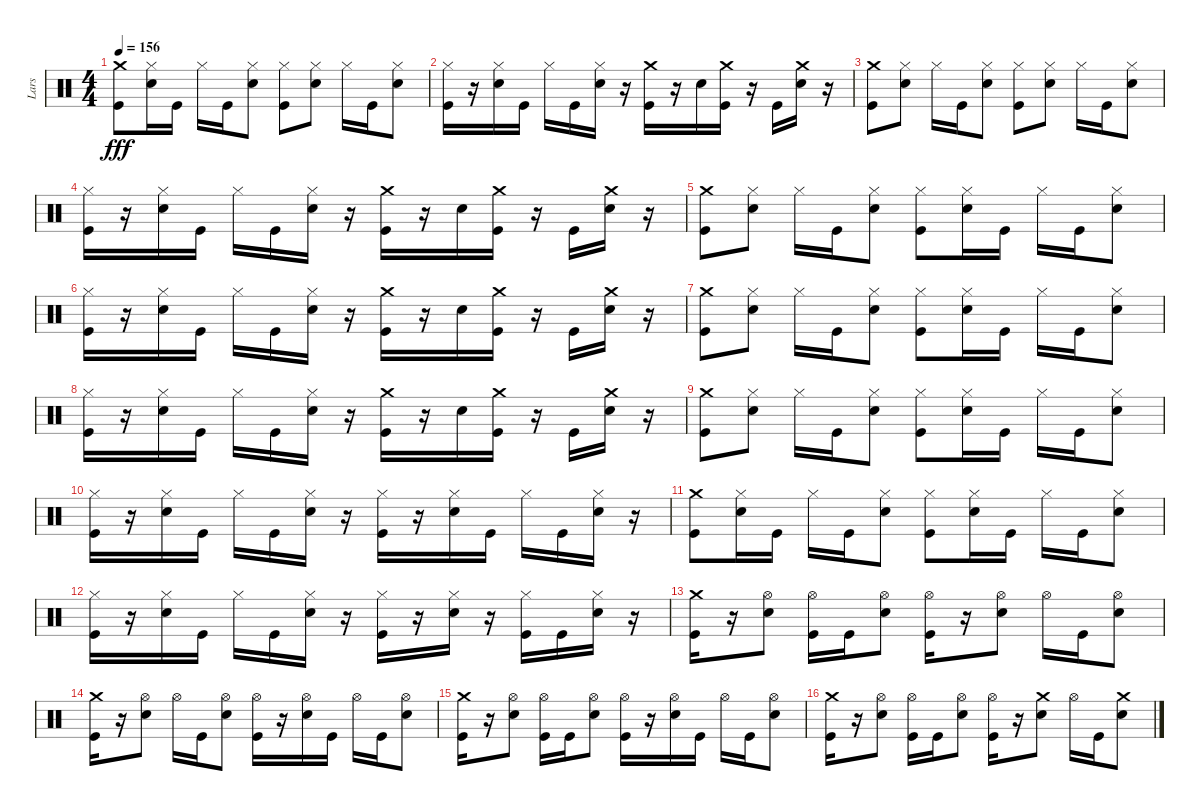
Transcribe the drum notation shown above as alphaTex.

\track ("Lars" "Lars") {instrument percussion bank 102}
\staff {score}
\articulation defaults
\ts (4 4)
\tempo 156
\clef neutral
\ks c
("Crash medium (hit)" "Kick (hit)").8{dy fff} ("Snare (hit) 2" "Hi-Hat (closed)").16 "Kick (hit)".16 "Hi-Hat (closed)".16 "Kick (hit)".16 ("Snare (hit) 2" "Hi-Hat (closed)").8 ("Kick (hit)" "Hi-Hat (closed)").8 ("Snare (hit) 2" "Hi-Hat (closed)").8 "Hi-Hat (closed)".16 "Kick (hit)".16 ("Snare (hit) 2" "Hi-Hat (closed)").8 |
("Hi-Hat (closed)" "Kick (hit)").16 r.16 ("Hi-Hat (closed)" "Snare (hit) 2").16 "Kick (hit)".16 "Hi-Hat (closed)".16 "Kick (hit)".16 ("Hi-Hat (closed)" "Snare (hit) 2").16 r.16 ("Crash medium (hit)" "Kick (hit)").16 r.16 "Snare (hit) 2".16 ("Crash medium (hit)" "Kick (hit)").16 r.16 "Kick (hit)".16 ("Crash medium (hit)" "Snare (hit) 2").16 r.16 |
("Crash medium (hit)" "Kick (hit)").8 ("Snare (hit) 2" "Hi-Hat (closed)").8 "Hi-Hat (closed)".16 "Kick (hit)".16 ("Snare (hit) 2" "Hi-Hat (closed)").8 ("Kick (hit)" "Hi-Hat (closed)").8 ("Snare (hit) 2" "Hi-Hat (closed)").8 "Hi-Hat (closed)".16 "Kick (hit)".16 ("Snare (hit) 2" "Hi-Hat (closed)").8 |
("Hi-Hat (closed)" "Kick (hit)").16 r.16 ("Hi-Hat (closed)" "Snare (hit) 2").16 "Kick (hit)".16 "Hi-Hat (closed)".16 "Kick (hit)".16 ("Hi-Hat (closed)" "Snare (hit) 2").16 r.16 ("Crash medium (hit)" "Kick (hit)").16 r.16 "Snare (hit) 2".16 ("Crash medium (hit)" "Kick (hit)").16 r.16 "Kick (hit)".16 ("Crash medium (hit)" "Snare (hit) 2").16 r.16 |
("Crash medium (hit)" "Kick (hit)").8 ("Snare (hit) 2" "Hi-Hat (closed)").8 "Hi-Hat (closed)".16 "Kick (hit)".16 ("Snare (hit) 2" "Hi-Hat (closed)").8 ("Kick (hit)" "Hi-Hat (closed)").8 ("Snare (hit) 2" "Hi-Hat (closed)").16 "Kick (hit)".16 "Hi-Hat (closed)".16 "Kick (hit)".16 ("Snare (hit) 2" "Hi-Hat (closed)").8 |
("Hi-Hat (closed)" "Kick (hit)").16 r.16 ("Hi-Hat (closed)" "Snare (hit) 2").16 "Kick (hit)".16 "Hi-Hat (closed)".16 "Kick (hit)".16 ("Hi-Hat (closed)" "Snare (hit) 2").16 r.16 ("Crash medium (hit)" "Kick (hit)").16 r.16 "Snare (hit) 2".16 ("Crash medium (hit)" "Kick (hit)").16 r.16 "Kick (hit)".16 ("Crash medium (hit)" "Snare (hit) 2").16 r.16 |
("Crash medium (hit)" "Kick (hit)").8 ("Snare (hit) 2" "Hi-Hat (closed)").8 "Hi-Hat (closed)".16 "Kick (hit)".16 ("Snare (hit) 2" "Hi-Hat (closed)").8 ("Kick (hit)" "Hi-Hat (closed)").8 ("Snare (hit) 2" "Hi-Hat (closed)").16 "Kick (hit)".16 "Hi-Hat (closed)".16 "Kick (hit)".16 ("Snare (hit) 2" "Hi-Hat (closed)").8 |
("Hi-Hat (closed)" "Kick (hit)").16 r.16 ("Hi-Hat (closed)" "Snare (hit) 2").16 "Kick (hit)".16 "Hi-Hat (closed)".16 "Kick (hit)".16 ("Hi-Hat (closed)" "Snare (hit) 2").16 r.16 ("Crash medium (hit)" "Kick (hit)").16 r.16 "Snare (hit) 2".16 ("Crash medium (hit)" "Kick (hit)").16 r.16 "Kick (hit)".16 ("Crash medium (hit)" "Snare (hit) 2").16 r.16 |
("Crash medium (hit)" "Kick (hit)").8 ("Snare (hit) 2" "Hi-Hat (closed)").8 "Hi-Hat (closed)".16 "Kick (hit)".16 ("Snare (hit) 2" "Hi-Hat (closed)").8 ("Kick (hit)" "Hi-Hat (closed)").8 ("Snare (hit) 2" "Hi-Hat (closed)").16 "Kick (hit)".16 "Hi-Hat (closed)".16 "Kick (hit)".16 ("Snare (hit) 2" "Hi-Hat (closed)").8 |
("Hi-Hat (closed)" "Kick (hit)").16 r.16 ("Hi-Hat (closed)" "Snare (hit) 2").16 "Kick (hit)".16 "Hi-Hat (closed)".16 "Kick (hit)".16 ("Hi-Hat (closed)" "Snare (hit) 2").16 r.16 ("Hi-Hat (closed)" "Kick (hit)").16 r.16 ("Hi-Hat (closed)" "Snare (hit) 2").16 "Kick (hit)".16 "Hi-Hat (closed)".16 "Kick (hit)".16 ("Hi-Hat (closed)" "Snare (hit) 2").16 r.16 |
("Crash medium (hit)" "Kick (hit)").8 ("Snare (hit) 2" "Hi-Hat (closed)").16 "Kick (hit)".16 "Hi-Hat (closed)".16 "Kick (hit)".16 ("Snare (hit) 2" "Hi-Hat (closed)").8 ("Kick (hit)" "Hi-Hat (closed)").8 ("Snare (hit) 2" "Hi-Hat (closed)").16 "Kick (hit)".16 "Hi-Hat (closed)".16 "Kick (hit)".16 ("Snare (hit) 2" "Hi-Hat (closed)").8 |
("Hi-Hat (closed)" "Kick (hit)").16 r.16 ("Hi-Hat (closed)" "Snare (hit) 2").16 "Kick (hit)".16 "Hi-Hat (closed)".16 "Kick (hit)".16 ("Hi-Hat (closed)" "Snare (hit) 2").16 r.16 ("Hi-Hat (closed)" "Kick (hit)").16 r.16 ("Hi-Hat (closed)" "Snare (hit) 2").16 r.16 ("Kick (hit)" "Hi-Hat (closed)").16 "Kick (hit)".16 ("Snare (hit) 2" "Hi-Hat (closed)").16 r.16 |
("Kick (hit)" "Crash medium (hit)").16 r.16 ("Snare (hit) 2" "Hi-Hat (open)").8 ("Kick (hit)" "Hi-Hat (open)").16 "Kick (hit)".16 ("Snare (hit) 2" "Hi-Hat (open)").8 ("Kick (hit)" "Hi-Hat (open)").16 r.16 ("Snare (hit) 2" "Hi-Hat (open)").8 "Hi-Hat (open)".16 "Kick (hit)".16 ("Snare (hit) 2" "Hi-Hat (open)").8 |
("Kick (hit)" "Crash medium (hit)").16 r.16 ("Snare (hit) 2" "Hi-Hat (open)").8 "Hi-Hat (open)".16 "Kick (hit)".16 ("Snare (hit) 2" "Hi-Hat (open)").8 ("Kick (hit)" "Hi-Hat (open)").16 r.16 ("Snare (hit) 2" "Hi-Hat (open)").16 "Kick (hit)".16 "Hi-Hat (open)".16 "Kick (hit)".16 ("Snare (hit) 2" "Hi-Hat (open)").8 |
("Kick (hit)" "Crash medium (hit)").16 r.16 ("Snare (hit) 2" "Hi-Hat (open)").8 ("Kick (hit)" "Hi-Hat (open)").16 "Kick (hit)".16 ("Snare (hit) 2" "Hi-Hat (open)").8 ("Kick (hit)" "Hi-Hat (open)").16 r.16 ("Snare (hit) 2" "Hi-Hat (open)").16 "Kick (hit)".16 "Hi-Hat (open)".16 "Kick (hit)".16 ("Snare (hit) 2" "Hi-Hat (open)").8 |
("Kick (hit)" "Crash medium (hit)").16 r.16 ("Snare (hit) 2" "Hi-Hat (open)").8 ("Kick (hit)" "Hi-Hat (open)").16 "Kick (hit)".16 ("Snare (hit) 2" "Hi-Hat (open)").8 ("Kick (hit)" "Hi-Hat (open)").16 r.16 ("Crash medium (hit)" "Snare (hit) 2").8 "Hi-Hat (open)".16 "Kick (hit)".16 ("Crash medium (hit)" "Snare (hit) 2").8
